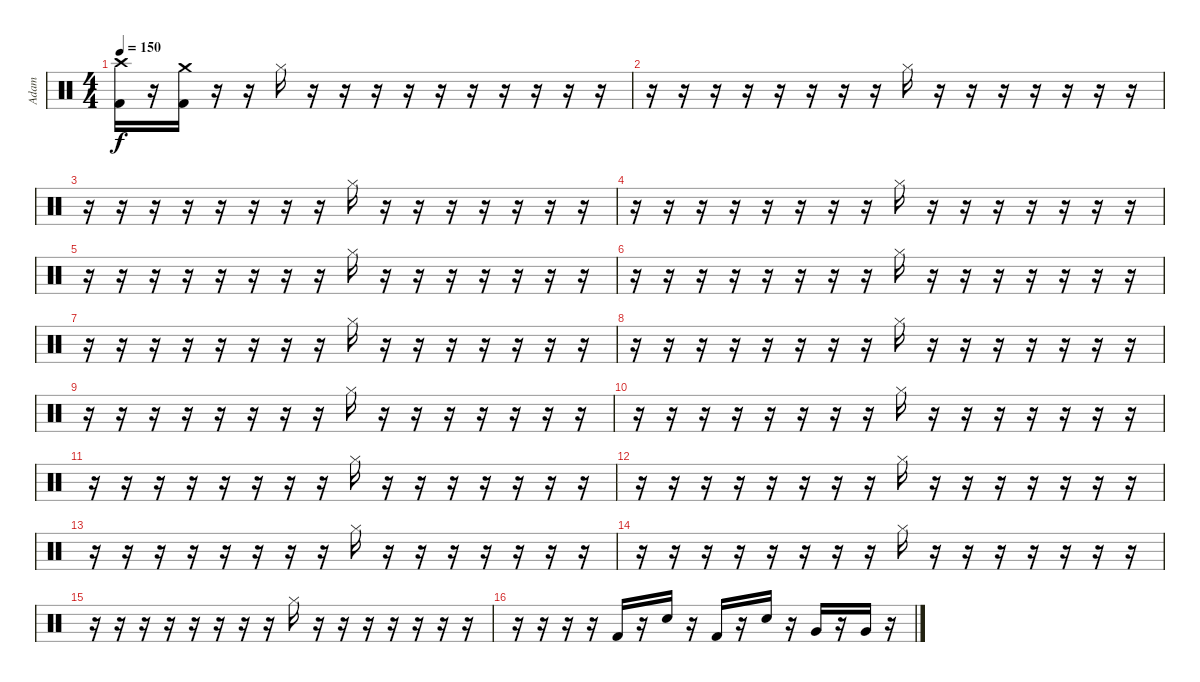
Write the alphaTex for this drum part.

\track ("Adam" "Adam") {instrument percussion}
\staff {score}
\articulation defaults
\ts (4 4)
\tempo 150
\clef neutral
\ks c
("Crash high (hit)" "Kick (hit) 2").16{dy f} r.16 ("Crash medium (hit)" "Kick (hit) 2").16 r.16 r.16 "Hi-Hat (closed)".16 r.16 r.16 r.16 r.16 r.16 r.16 r.16 r.16 r.16 r.16 |
r.16 r.16 r.16 r.16 r.16 r.16 r.16 r.16 "Hi-Hat (closed)".16 r.16 r.16 r.16 r.16 r.16 r.16 r.16 |
r.16 r.16 r.16 r.16 r.16 r.16 r.16 r.16 "Hi-Hat (closed)".16 r.16 r.16 r.16 r.16 r.16 r.16 r.16 |
r.16 r.16 r.16 r.16 r.16 r.16 r.16 r.16 "Hi-Hat (closed)".16 r.16 r.16 r.16 r.16 r.16 r.16 r.16 |
r.16 r.16 r.16 r.16 r.16 r.16 r.16 r.16 "Hi-Hat (closed)".16 r.16 r.16 r.16 r.16 r.16 r.16 r.16 |
r.16 r.16 r.16 r.16 r.16 r.16 r.16 r.16 "Hi-Hat (closed)".16 r.16 r.16 r.16 r.16 r.16 r.16 r.16 |
r.16 r.16 r.16 r.16 r.16 r.16 r.16 r.16 "Hi-Hat (closed)".16 r.16 r.16 r.16 r.16 r.16 r.16 r.16 |
r.16 r.16 r.16 r.16 r.16 r.16 r.16 r.16 "Hi-Hat (closed)".16 r.16 r.16 r.16 r.16 r.16 r.16 r.16 |
r.16 r.16 r.16 r.16 r.16 r.16 r.16 r.16 "Hi-Hat (closed)".16 r.16 r.16 r.16 r.16 r.16 r.16 r.16 |
r.16 r.16 r.16 r.16 r.16 r.16 r.16 r.16 "Hi-Hat (closed)".16 r.16 r.16 r.16 r.16 r.16 r.16 r.16 |
r.16 r.16 r.16 r.16 r.16 r.16 r.16 r.16 "Hi-Hat (closed)".16 r.16 r.16 r.16 r.16 r.16 r.16 r.16 |
r.16 r.16 r.16 r.16 r.16 r.16 r.16 r.16 "Hi-Hat (closed)".16 r.16 r.16 r.16 r.16 r.16 r.16 r.16 |
r.16 r.16 r.16 r.16 r.16 r.16 r.16 r.16 "Hi-Hat (closed)".16 r.16 r.16 r.16 r.16 r.16 r.16 r.16 |
r.16 r.16 r.16 r.16 r.16 r.16 r.16 r.16 "Hi-Hat (closed)".16 r.16 r.16 r.16 r.16 r.16 r.16 r.16 |
r.16 r.16 r.16 r.16 r.16 r.16 r.16 r.16 "Hi-Hat (closed)".16 r.16 r.16 r.16 r.16 r.16 r.16 r.16 |
r.16 r.16 r.16 r.16 "Kick (hit) 2".16 r.16 "Electric Snare (hit)".16 r.16 "Kick (hit) 2".16 r.16 "Electric Snare (hit)".16 r.16 "Very Low Tom (hit)".16 r.16 "Very Low Tom (hit)".16 r.16
